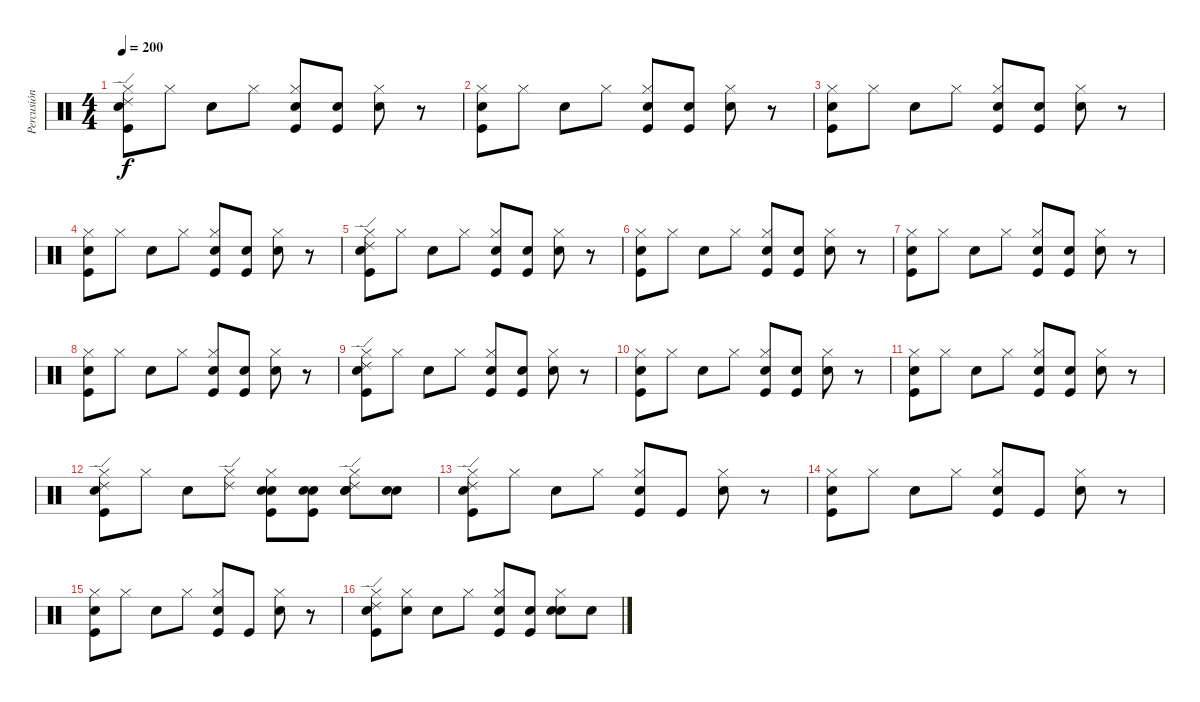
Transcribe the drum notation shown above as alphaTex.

\track ("Percusión" "Percusión") {instrument percussion}
\staff {score}
\articulation defaults
\ts (4 4)
\tempo 200
\clef neutral
\ks c
("Snare (hit) 2" "Hi-Hat (closed)" "Ride (edge) 2" "Kick (hit)").8{dy f} "Hi-Hat (closed)".8 "Electric Snare (hit)".8 "Hi-Hat (closed)".8 ("Snare (hit) 2" "Hi-Hat (closed)" "Kick (hit)").8 ("Snare (hit) 2" "Kick (hit)").8 ("Hi-Hat (closed)" "Electric Snare (hit)").8 r.8 |
("Snare (hit) 2" "Hi-Hat (closed)" "Kick (hit)").8 "Hi-Hat (closed)".8 "Electric Snare (hit)".8 "Hi-Hat (closed)".8 ("Snare (hit) 2" "Hi-Hat (closed)" "Kick (hit)").8 ("Snare (hit) 2" "Kick (hit)").8 ("Hi-Hat (closed)" "Electric Snare (hit)").8 r.8 |
("Snare (hit) 2" "Hi-Hat (closed)" "Kick (hit)").8 "Hi-Hat (closed)".8 "Electric Snare (hit)".8 "Hi-Hat (closed)".8 ("Snare (hit) 2" "Hi-Hat (closed)" "Kick (hit)").8 ("Snare (hit) 2" "Kick (hit)").8 ("Hi-Hat (closed)" "Electric Snare (hit)").8 r.8 |
("Snare (hit) 2" "Hi-Hat (closed)" "Kick (hit)").8 "Hi-Hat (closed)".8 "Electric Snare (hit)".8 "Hi-Hat (closed)".8 ("Snare (hit) 2" "Hi-Hat (closed)" "Kick (hit)").8 ("Snare (hit) 2" "Kick (hit)").8 ("Hi-Hat (closed)" "Electric Snare (hit)").8 r.8 |
("Snare (hit) 2" "Hi-Hat (closed)" "Ride (edge) 2" "Kick (hit)").8 "Hi-Hat (closed)".8 "Electric Snare (hit)".8 "Hi-Hat (closed)".8 ("Snare (hit) 2" "Hi-Hat (closed)" "Kick (hit)").8 ("Snare (hit) 2" "Kick (hit)").8 ("Hi-Hat (closed)" "Electric Snare (hit)").8 r.8 |
("Snare (hit) 2" "Hi-Hat (closed)" "Kick (hit)").8 "Hi-Hat (closed)".8 "Electric Snare (hit)".8 "Hi-Hat (closed)".8 ("Snare (hit) 2" "Hi-Hat (closed)" "Kick (hit)").8 ("Snare (hit) 2" "Kick (hit)").8 ("Hi-Hat (closed)" "Electric Snare (hit)").8 r.8 |
("Snare (hit) 2" "Hi-Hat (closed)" "Kick (hit)").8 "Hi-Hat (closed)".8 "Electric Snare (hit)".8 "Hi-Hat (closed)".8 ("Snare (hit) 2" "Hi-Hat (closed)" "Kick (hit)").8 ("Snare (hit) 2" "Kick (hit)").8 ("Hi-Hat (closed)" "Electric Snare (hit)").8 r.8 |
("Snare (hit) 2" "Hi-Hat (closed)" "Kick (hit)").8 "Hi-Hat (closed)".8 "Electric Snare (hit)".8 "Hi-Hat (closed)".8 ("Snare (hit) 2" "Hi-Hat (closed)" "Kick (hit)").8 ("Snare (hit) 2" "Kick (hit)").8 ("Hi-Hat (closed)" "Electric Snare (hit)").8 r.8 |
("Snare (hit) 2" "Hi-Hat (closed)" "Ride (edge) 2" "Kick (hit)").8 "Hi-Hat (closed)".8 "Electric Snare (hit)".8 "Hi-Hat (closed)".8 ("Snare (hit) 2" "Hi-Hat (closed)" "Kick (hit)").8 ("Snare (hit) 2" "Kick (hit)").8 ("Hi-Hat (closed)" "Electric Snare (hit)").8 r.8 |
("Snare (hit) 2" "Hi-Hat (closed)" "Kick (hit)").8 "Hi-Hat (closed)".8 "Electric Snare (hit)".8 "Hi-Hat (closed)".8 ("Snare (hit) 2" "Hi-Hat (closed)" "Kick (hit)").8 ("Snare (hit) 2" "Kick (hit)").8 ("Hi-Hat (closed)" "Electric Snare (hit)").8 r.8 |
("Snare (hit) 2" "Hi-Hat (closed)" "Kick (hit)").8 "Hi-Hat (closed)".8 "Electric Snare (hit)".8 "Hi-Hat (closed)".8 ("Snare (hit) 2" "Hi-Hat (closed)" "Kick (hit)").8 ("Snare (hit) 2" "Kick (hit)").8 ("Hi-Hat (closed)" "Electric Snare (hit)").8 r.8 |
("Snare (hit) 2" "Hi-Hat (closed)" "Ride (edge) 2" "Kick (hit)").8 "Hi-Hat (closed)".8 "Electric Snare (hit)".8 ("Hi-Hat (closed)" "Ride (edge) 2").8 ("Snare (hit) 2" "Hi-Hat (closed)" "Electric Snare (hit)" "Kick (hit)").8 ("Snare (hit) 2" "Electric Snare (hit)" "Kick (hit)").8 ("Snare (hit) 2" "Hi-Hat (closed)" "Electric Snare (hit)" "Ride (edge) 2").8 ("Snare (hit) 2" "Electric Snare (hit)").8 |
("Snare (hit) 2" "Hi-Hat (closed)" "Ride (edge) 2" "Kick (hit)").8 "Hi-Hat (closed)".8 "Electric Snare (hit)".8 "Hi-Hat (closed)".8 ("Snare (hit) 2" "Hi-Hat (closed)" "Kick (hit)").8 "Kick (hit)".8 ("Hi-Hat (closed)" "Electric Snare (hit)").8 r.8 |
("Snare (hit) 2" "Hi-Hat (closed)" "Kick (hit)").8 "Hi-Hat (closed)".8 "Electric Snare (hit)".8 "Hi-Hat (closed)".8 ("Snare (hit) 2" "Hi-Hat (closed)" "Kick (hit)").8 "Kick (hit)".8 ("Hi-Hat (closed)" "Electric Snare (hit)").8 r.8 |
("Snare (hit) 2" "Hi-Hat (closed)" "Kick (hit)").8 "Hi-Hat (closed)".8 "Electric Snare (hit)".8 "Hi-Hat (closed)".8 ("Snare (hit) 2" "Hi-Hat (closed)" "Kick (hit)").8 "Kick (hit)".8 ("Hi-Hat (closed)" "Electric Snare (hit)").8 r.8 |
("Snare (hit) 2" "Hi-Hat (closed)" "Ride (edge) 2" "Kick (hit)").8 ("Snare (hit) 2" "Hi-Hat (closed)").8 "Electric Snare (hit)".8 "Hi-Hat (closed)".8 ("Snare (hit) 2" "Hi-Hat (closed)" "Kick (hit)").8 ("Snare (hit) 2" "Kick (hit)").8 ("Snare (hit) 2" "Hi-Hat (closed)" "Electric Snare (hit)").8 "Snare (hit) 2".8
